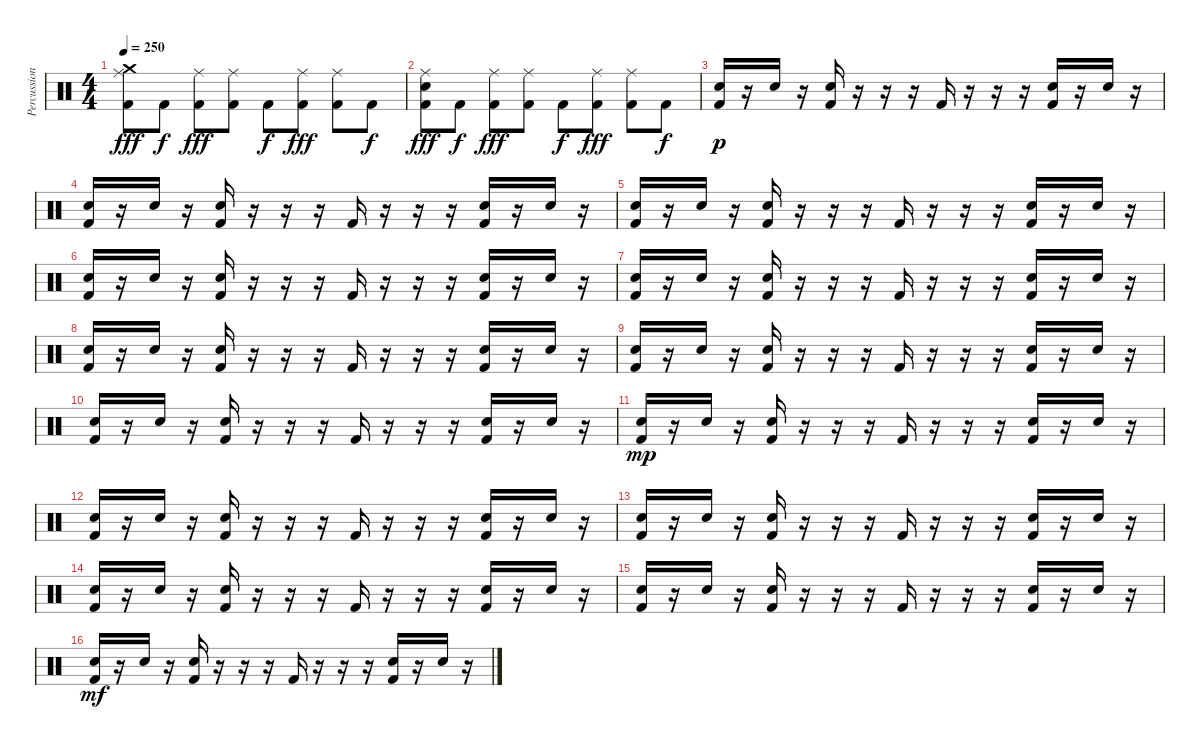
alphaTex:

\track ("Percussions" "Percussion") {instrument percussion}
\staff {score}
\articulation defaults
\ts (4 4)
\tempo 250
\clef neutral
\ks c
("Ride (middle)" "Crash medium (hit)" "Kick (hit) 2").8{dy fff} "Kick (hit) 2".8{dy f} ("Ride (middle)" "Kick (hit) 2").8{dy fff} ("Ride (middle)" "Kick (hit) 2").8 "Kick (hit) 2".8{dy f} ("Ride (middle)" "Kick (hit) 2").8{dy fff} ("Ride (middle)" "Kick (hit) 2").8 "Kick (hit) 2".8{dy f} |
("Ride (middle)" "Electric Snare (hit)" "Kick (hit) 2").8{dy fff} "Kick (hit) 2".8{dy f} ("Ride (middle)" "Kick (hit) 2").8{dy fff} ("Ride (middle)" "Kick (hit) 2").8 "Kick (hit) 2".8{dy f} ("Ride (middle)" "Kick (hit) 2").8{dy fff} ("Ride (middle)" "Kick (hit) 2").8 "Kick (hit) 2".8{dy f} |
("Electric Snare (hit)" "Kick (hit) 2").16{dy p} r.16 "Electric Snare (hit)".16 r.16 ("Electric Snare (hit)" "Kick (hit) 2").16 r.16 r.16 r.16 "Kick (hit) 2".16 r.16 r.16 r.16 ("Electric Snare (hit)" "Kick (hit) 2").16 r.16 "Electric Snare (hit)".16 r.16 |
("Electric Snare (hit)" "Kick (hit) 2").16 r.16 "Electric Snare (hit)".16 r.16 ("Electric Snare (hit)" "Kick (hit) 2").16 r.16 r.16 r.16 "Kick (hit) 2".16 r.16 r.16 r.16 ("Electric Snare (hit)" "Kick (hit) 2").16 r.16 "Electric Snare (hit)".16 r.16 |
("Electric Snare (hit)" "Kick (hit) 2").16 r.16 "Electric Snare (hit)".16 r.16 ("Electric Snare (hit)" "Kick (hit) 2").16 r.16 r.16 r.16 "Kick (hit) 2".16 r.16 r.16 r.16 ("Electric Snare (hit)" "Kick (hit) 2").16 r.16 "Electric Snare (hit)".16 r.16 |
("Electric Snare (hit)" "Kick (hit) 2").16 r.16 "Electric Snare (hit)".16 r.16 ("Electric Snare (hit)" "Kick (hit) 2").16 r.16 r.16 r.16 "Kick (hit) 2".16 r.16 r.16 r.16 ("Electric Snare (hit)" "Kick (hit) 2").16 r.16 "Electric Snare (hit)".16 r.16 |
("Electric Snare (hit)" "Kick (hit) 2").16 r.16 "Electric Snare (hit)".16 r.16 ("Electric Snare (hit)" "Kick (hit) 2").16 r.16 r.16 r.16 "Kick (hit) 2".16 r.16 r.16 r.16 ("Electric Snare (hit)" "Kick (hit) 2").16 r.16 "Electric Snare (hit)".16 r.16 |
("Electric Snare (hit)" "Kick (hit) 2").16 r.16 "Electric Snare (hit)".16 r.16 ("Electric Snare (hit)" "Kick (hit) 2").16 r.16 r.16 r.16 "Kick (hit) 2".16 r.16 r.16 r.16 ("Electric Snare (hit)" "Kick (hit) 2").16 r.16 "Electric Snare (hit)".16 r.16 |
("Electric Snare (hit)" "Kick (hit) 2").16 r.16 "Electric Snare (hit)".16 r.16 ("Electric Snare (hit)" "Kick (hit) 2").16 r.16 r.16 r.16 "Kick (hit) 2".16 r.16 r.16 r.16 ("Electric Snare (hit)" "Kick (hit) 2").16 r.16 "Electric Snare (hit)".16 r.16 |
("Electric Snare (hit)" "Kick (hit) 2").16 r.16 "Electric Snare (hit)".16 r.16 ("Electric Snare (hit)" "Kick (hit) 2").16 r.16 r.16 r.16 "Kick (hit) 2".16 r.16 r.16 r.16 ("Electric Snare (hit)" "Kick (hit) 2").16 r.16 "Electric Snare (hit)".16 r.16 |
("Electric Snare (hit)" "Kick (hit) 2").16{dy mp} r.16 "Electric Snare (hit)".16 r.16 ("Electric Snare (hit)" "Kick (hit) 2").16 r.16 r.16 r.16 "Kick (hit) 2".16 r.16 r.16 r.16 ("Electric Snare (hit)" "Kick (hit) 2").16 r.16 "Electric Snare (hit)".16 r.16 |
("Electric Snare (hit)" "Kick (hit) 2").16 r.16 "Electric Snare (hit)".16 r.16 ("Electric Snare (hit)" "Kick (hit) 2").16 r.16 r.16 r.16 "Kick (hit) 2".16 r.16 r.16 r.16 ("Electric Snare (hit)" "Kick (hit) 2").16 r.16 "Electric Snare (hit)".16 r.16 |
("Electric Snare (hit)" "Kick (hit) 2").16 r.16 "Electric Snare (hit)".16 r.16 ("Electric Snare (hit)" "Kick (hit) 2").16 r.16 r.16 r.16 "Kick (hit) 2".16 r.16 r.16 r.16 ("Electric Snare (hit)" "Kick (hit) 2").16 r.16 "Electric Snare (hit)".16 r.16 |
("Electric Snare (hit)" "Kick (hit) 2").16 r.16 "Electric Snare (hit)".16 r.16 ("Electric Snare (hit)" "Kick (hit) 2").16 r.16 r.16 r.16 "Kick (hit) 2".16 r.16 r.16 r.16 ("Electric Snare (hit)" "Kick (hit) 2").16 r.16 "Electric Snare (hit)".16 r.16 |
("Electric Snare (hit)" "Kick (hit) 2").16 r.16 "Electric Snare (hit)".16 r.16 ("Electric Snare (hit)" "Kick (hit) 2").16 r.16 r.16 r.16 "Kick (hit) 2".16 r.16 r.16 r.16 ("Electric Snare (hit)" "Kick (hit) 2").16 r.16 "Electric Snare (hit)".16 r.16 |
("Electric Snare (hit)" "Kick (hit) 2").16{dy mf} r.16 "Electric Snare (hit)".16 r.16 ("Electric Snare (hit)" "Kick (hit) 2").16 r.16 r.16 r.16 "Kick (hit) 2".16 r.16 r.16 r.16 ("Electric Snare (hit)" "Kick (hit) 2").16 r.16 "Electric Snare (hit)".16 r.16
